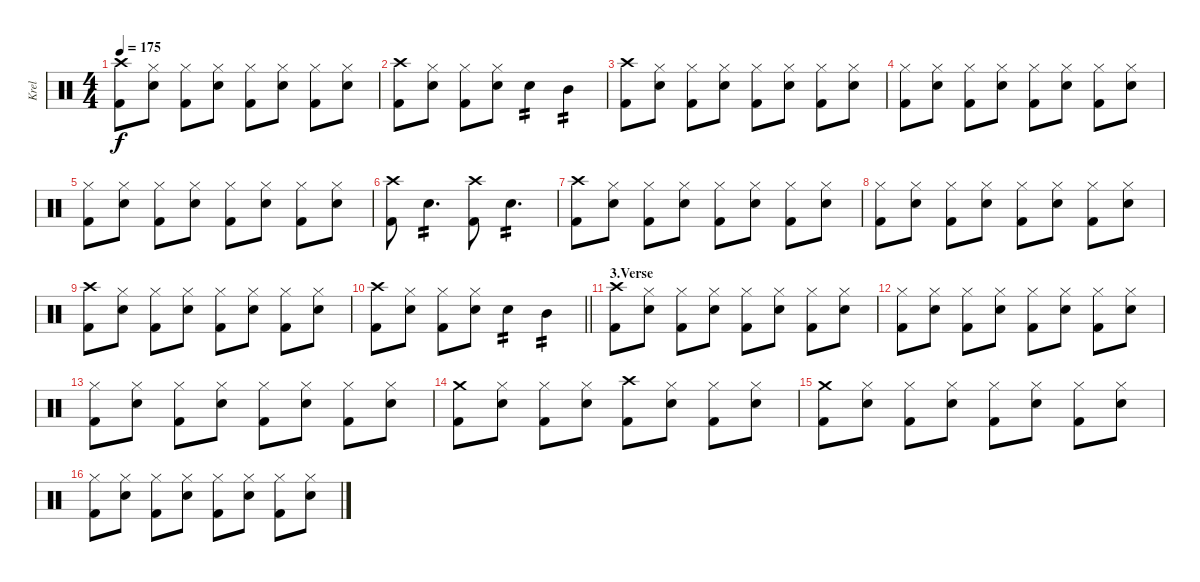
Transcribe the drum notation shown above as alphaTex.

\track ("Krel" "Krel") {instrument percussion}
\staff {score}
\articulation defaults
\ts (4 4)
\tempo 175
\clef neutral
\ks c
("Crash high (hit)" "Kick (hit) 2").8{dy f} ("Hi-Hat (closed)" "Snare (hit) 2").8 ("Hi-Hat (closed)" "Kick (hit) 2").8 ("Hi-Hat (closed)" "Snare (hit) 2").8 ("Hi-Hat (closed)" "Kick (hit) 2").8 ("Hi-Hat (closed)" "Snare (hit) 2").8 ("Hi-Hat (closed)" "Kick (hit) 2").8 ("Hi-Hat (closed)" "Snare (hit) 2").8 |
("Crash high (hit)" "Kick (hit) 2").8 ("Hi-Hat (closed)" "Snare (hit) 2").8 ("Hi-Hat (closed)" "Kick (hit) 2").8 ("Hi-Hat (closed)" "Snare (hit) 2").8 "Snare (hit) 2".4{tp 2} "Mid Tom (hit)".4{tp 2} |
("Crash high (hit)" "Kick (hit) 2").8 ("Hi-Hat (closed)" "Snare (hit) 2").8 ("Hi-Hat (closed)" "Kick (hit) 2").8 ("Hi-Hat (closed)" "Snare (hit) 2").8 ("Hi-Hat (closed)" "Kick (hit) 2").8 ("Hi-Hat (closed)" "Snare (hit) 2").8 ("Hi-Hat (closed)" "Kick (hit) 2").8 ("Hi-Hat (closed)" "Snare (hit) 2").8 |
("Hi-Hat (closed)" "Kick (hit) 2").8 ("Hi-Hat (closed)" "Snare (hit) 2").8 ("Hi-Hat (closed)" "Kick (hit) 2").8 ("Hi-Hat (closed)" "Snare (hit) 2").8 ("Hi-Hat (closed)" "Kick (hit) 2").8 ("Hi-Hat (closed)" "Snare (hit) 2").8 ("Hi-Hat (closed)" "Kick (hit) 2").8 ("Hi-Hat (closed)" "Snare (hit) 2").8 |
("Hi-Hat (closed)" "Kick (hit) 2").8 ("Hi-Hat (closed)" "Snare (hit) 2").8 ("Hi-Hat (closed)" "Kick (hit) 2").8 ("Hi-Hat (closed)" "Snare (hit) 2").8 ("Hi-Hat (closed)" "Kick (hit) 2").8 ("Hi-Hat (closed)" "Snare (hit) 2").8 ("Hi-Hat (closed)" "Kick (hit) 2").8 ("Hi-Hat (closed)" "Snare (hit) 2").8 |
("Crash high (hit)" "Kick (hit) 2").8 "Snare (hit) 2".4{d tp 2} ("Crash high (hit)" "Kick (hit) 2").8 "Snare (hit) 2".4{d tp 2} |
("Crash high (hit)" "Kick (hit) 2").8 ("Hi-Hat (closed)" "Snare (hit) 2").8 ("Hi-Hat (closed)" "Kick (hit) 2").8 ("Hi-Hat (closed)" "Snare (hit) 2").8 ("Hi-Hat (closed)" "Kick (hit) 2").8 ("Hi-Hat (closed)" "Snare (hit) 2").8 ("Hi-Hat (closed)" "Kick (hit) 2").8 ("Hi-Hat (closed)" "Snare (hit) 2").8 |
("Hi-Hat (closed)" "Kick (hit) 2").8 ("Hi-Hat (closed)" "Snare (hit) 2").8 ("Hi-Hat (closed)" "Kick (hit) 2").8 ("Hi-Hat (closed)" "Snare (hit) 2").8 ("Hi-Hat (closed)" "Kick (hit) 2").8 ("Hi-Hat (closed)" "Snare (hit) 2").8 ("Hi-Hat (closed)" "Kick (hit) 2").8 ("Hi-Hat (closed)" "Snare (hit) 2").8 |
("Crash high (hit)" "Kick (hit) 2").8 ("Hi-Hat (closed)" "Snare (hit) 2").8 ("Hi-Hat (closed)" "Kick (hit) 2").8 ("Hi-Hat (closed)" "Snare (hit) 2").8 ("Hi-Hat (closed)" "Kick (hit) 2").8 ("Hi-Hat (closed)" "Snare (hit) 2").8 ("Hi-Hat (closed)" "Kick (hit) 2").8 ("Hi-Hat (closed)" "Snare (hit) 2").8 |
\barLineRight lightlight
("Crash high (hit)" "Kick (hit) 2").8 ("Hi-Hat (closed)" "Snare (hit) 2").8 ("Hi-Hat (closed)" "Kick (hit) 2").8 ("Hi-Hat (closed)" "Snare (hit) 2").8 "Snare (hit) 2".4{tp 2} "Mid Tom (hit)".4{tp 2} |
\section ("" "3.Verse")
("Crash high (hit)" "Kick (hit) 2").8 ("Hi-Hat (closed)" "Snare (hit) 2").8 ("Hi-Hat (closed)" "Kick (hit) 2").8 ("Hi-Hat (closed)" "Snare (hit) 2").8 ("Hi-Hat (closed)" "Kick (hit) 2").8 ("Hi-Hat (closed)" "Snare (hit) 2").8 ("Hi-Hat (closed)" "Kick (hit) 2").8 ("Hi-Hat (closed)" "Snare (hit) 2").8 |
("Hi-Hat (closed)" "Kick (hit) 2").8 ("Hi-Hat (closed)" "Snare (hit) 2").8 ("Hi-Hat (closed)" "Kick (hit) 2").8 ("Hi-Hat (closed)" "Snare (hit) 2").8 ("Hi-Hat (closed)" "Kick (hit) 2").8 ("Hi-Hat (closed)" "Snare (hit) 2").8 ("Hi-Hat (closed)" "Kick (hit) 2").8 ("Hi-Hat (closed)" "Snare (hit) 2").8 |
("Hi-Hat (closed)" "Kick (hit) 2").8 ("Hi-Hat (closed)" "Snare (hit) 2").8 ("Hi-Hat (closed)" "Kick (hit) 2").8 ("Hi-Hat (closed)" "Snare (hit) 2").8 ("Hi-Hat (closed)" "Kick (hit) 2").8 ("Hi-Hat (closed)" "Snare (hit) 2").8 ("Hi-Hat (closed)" "Kick (hit) 2").8 ("Hi-Hat (closed)" "Snare (hit) 2").8 |
("Crash medium (hit)" "Kick (hit) 2").8 ("Hi-Hat (closed)" "Snare (hit) 2").8 ("Hi-Hat (closed)" "Kick (hit) 2").8 ("Hi-Hat (closed)" "Snare (hit) 2").8 ("Crash high (hit)" "Kick (hit) 2").8 ("Hi-Hat (closed)" "Snare (hit) 2").8 ("Hi-Hat (closed)" "Kick (hit) 2").8 ("Hi-Hat (closed)" "Snare (hit) 2").8 |
("Crash medium (hit)" "Kick (hit) 2").8 ("Hi-Hat (closed)" "Snare (hit) 2").8 ("Hi-Hat (closed)" "Kick (hit) 2").8 ("Hi-Hat (closed)" "Snare (hit) 2").8 ("Hi-Hat (closed)" "Kick (hit) 2").8 ("Hi-Hat (closed)" "Snare (hit) 2").8 ("Hi-Hat (closed)" "Kick (hit) 2").8 ("Hi-Hat (closed)" "Snare (hit) 2").8 |
("Hi-Hat (closed)" "Kick (hit) 2").8 ("Hi-Hat (closed)" "Snare (hit) 2").8 ("Hi-Hat (closed)" "Kick (hit) 2").8 ("Hi-Hat (closed)" "Snare (hit) 2").8 ("Hi-Hat (closed)" "Kick (hit) 2").8 ("Hi-Hat (closed)" "Snare (hit) 2").8 ("Hi-Hat (closed)" "Kick (hit) 2").8 ("Hi-Hat (closed)" "Snare (hit) 2").8
